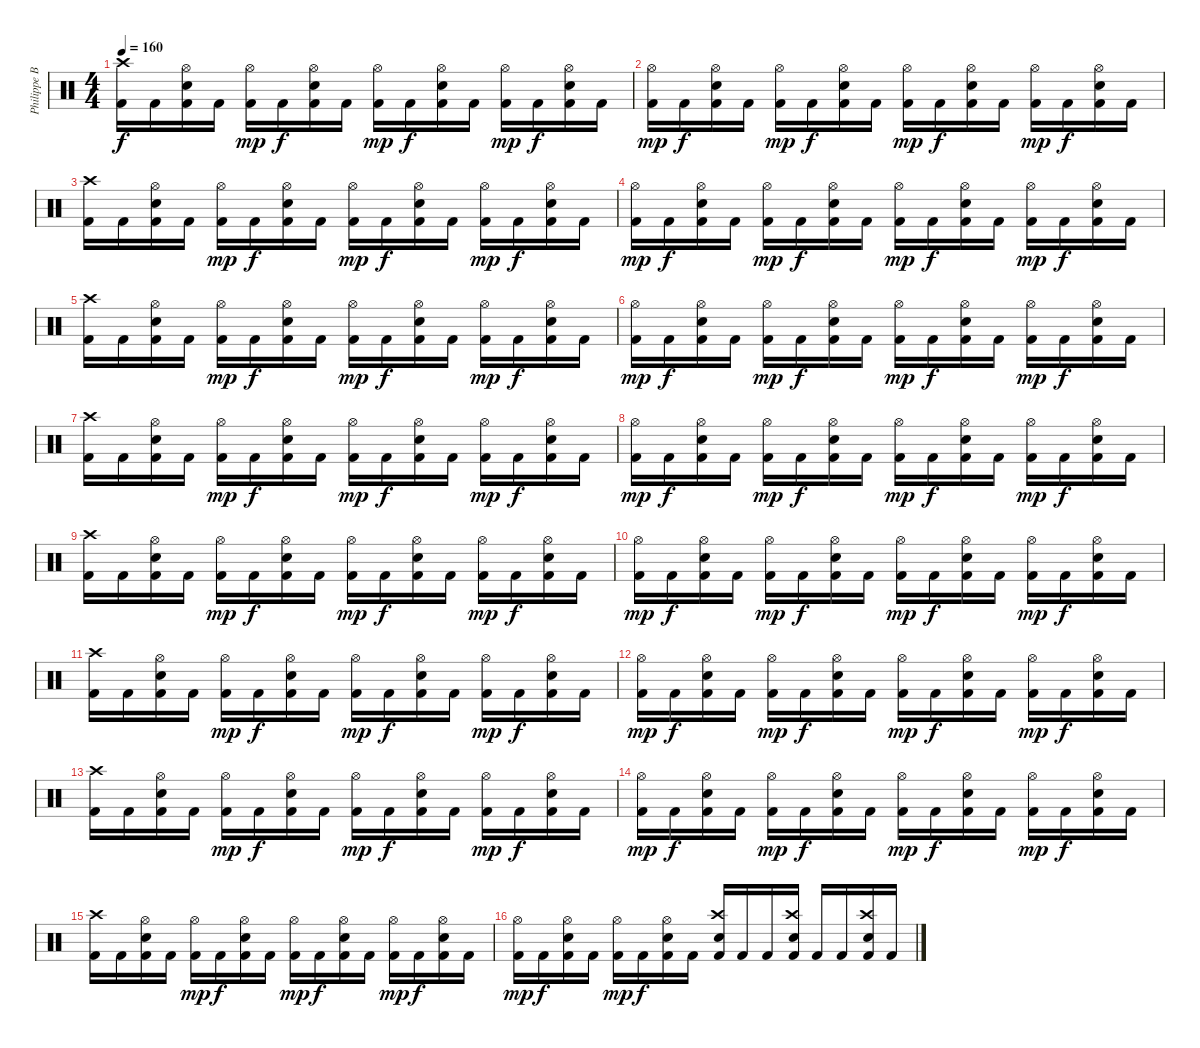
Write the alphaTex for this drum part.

\track ("Philippe Borda" "Philippe B") {instrument percussion}
\staff {score}
\articulation defaults
\ts (4 4)
\tempo 160
\clef neutral
\ks c
("Kick (hit) 2" "Crash high (hit)").16{dy f} "Kick (hit) 2".16 ("Kick (hit) 2" "Snare (hit) 2" "Hi-Hat (open)").16 "Kick (hit) 2".16 ("Kick (hit) 2" "Hi-Hat (open)").16{dy mp} "Kick (hit) 2".16{dy f} ("Kick (hit) 2" "Snare (hit) 2" "Hi-Hat (open)").16 "Kick (hit) 2".16 ("Kick (hit) 2" "Hi-Hat (open)").16{dy mp} "Kick (hit) 2".16{dy f} ("Kick (hit) 2" "Snare (hit) 2" "Hi-Hat (open)").16 "Kick (hit) 2".16 ("Kick (hit) 2" "Hi-Hat (open)").16{dy mp} "Kick (hit) 2".16{dy f} ("Kick (hit) 2" "Snare (hit) 2" "Hi-Hat (open)").16 "Kick (hit) 2".16 |
("Kick (hit) 2" "Hi-Hat (open)").16{dy mp} "Kick (hit) 2".16{dy f} ("Kick (hit) 2" "Snare (hit) 2" "Hi-Hat (open)").16 "Kick (hit) 2".16 ("Kick (hit) 2" "Hi-Hat (open)").16{dy mp} "Kick (hit) 2".16{dy f} ("Kick (hit) 2" "Snare (hit) 2" "Hi-Hat (open)").16 "Kick (hit) 2".16 ("Kick (hit) 2" "Hi-Hat (open)").16{dy mp} "Kick (hit) 2".16{dy f} ("Kick (hit) 2" "Snare (hit) 2" "Hi-Hat (open)").16 "Kick (hit) 2".16 ("Kick (hit) 2" "Hi-Hat (open)").16{dy mp} "Kick (hit) 2".16{dy f} ("Kick (hit) 2" "Snare (hit) 2" "Hi-Hat (open)").16 "Kick (hit) 2".16 |
("Kick (hit) 2" "Crash high (hit)").16 "Kick (hit) 2".16 ("Kick (hit) 2" "Snare (hit) 2" "Hi-Hat (open)").16 "Kick (hit) 2".16 ("Kick (hit) 2" "Hi-Hat (open)").16{dy mp} "Kick (hit) 2".16{dy f} ("Kick (hit) 2" "Snare (hit) 2" "Hi-Hat (open)").16 "Kick (hit) 2".16 ("Kick (hit) 2" "Hi-Hat (open)").16{dy mp} "Kick (hit) 2".16{dy f} ("Kick (hit) 2" "Snare (hit) 2" "Hi-Hat (open)").16 "Kick (hit) 2".16 ("Kick (hit) 2" "Hi-Hat (open)").16{dy mp} "Kick (hit) 2".16{dy f} ("Kick (hit) 2" "Snare (hit) 2" "Hi-Hat (open)").16 "Kick (hit) 2".16 |
("Kick (hit) 2" "Hi-Hat (open)").16{dy mp} "Kick (hit) 2".16{dy f} ("Kick (hit) 2" "Snare (hit) 2" "Hi-Hat (open)").16 "Kick (hit) 2".16 ("Kick (hit) 2" "Hi-Hat (open)").16{dy mp} "Kick (hit) 2".16{dy f} ("Kick (hit) 2" "Snare (hit) 2" "Hi-Hat (open)").16 "Kick (hit) 2".16 ("Kick (hit) 2" "Hi-Hat (open)").16{dy mp} "Kick (hit) 2".16{dy f} ("Kick (hit) 2" "Snare (hit) 2" "Hi-Hat (open)").16 "Kick (hit) 2".16 ("Kick (hit) 2" "Hi-Hat (open)").16{dy mp} "Kick (hit) 2".16{dy f} ("Kick (hit) 2" "Snare (hit) 2" "Hi-Hat (open)").16 "Kick (hit) 2".16 |
("Kick (hit) 2" "Crash high (hit)").16 "Kick (hit) 2".16 ("Kick (hit) 2" "Snare (hit) 2" "Hi-Hat (open)").16 "Kick (hit) 2".16 ("Kick (hit) 2" "Hi-Hat (open)").16{dy mp} "Kick (hit) 2".16{dy f} ("Kick (hit) 2" "Snare (hit) 2" "Hi-Hat (open)").16 "Kick (hit) 2".16 ("Kick (hit) 2" "Hi-Hat (open)").16{dy mp} "Kick (hit) 2".16{dy f} ("Kick (hit) 2" "Snare (hit) 2" "Hi-Hat (open)").16 "Kick (hit) 2".16 ("Kick (hit) 2" "Hi-Hat (open)").16{dy mp} "Kick (hit) 2".16{dy f} ("Kick (hit) 2" "Snare (hit) 2" "Hi-Hat (open)").16 "Kick (hit) 2".16 |
("Kick (hit) 2" "Hi-Hat (open)").16{dy mp} "Kick (hit) 2".16{dy f} ("Kick (hit) 2" "Snare (hit) 2" "Hi-Hat (open)").16 "Kick (hit) 2".16 ("Kick (hit) 2" "Hi-Hat (open)").16{dy mp} "Kick (hit) 2".16{dy f} ("Kick (hit) 2" "Snare (hit) 2" "Hi-Hat (open)").16 "Kick (hit) 2".16 ("Kick (hit) 2" "Hi-Hat (open)").16{dy mp} "Kick (hit) 2".16{dy f} ("Kick (hit) 2" "Snare (hit) 2" "Hi-Hat (open)").16 "Kick (hit) 2".16 ("Kick (hit) 2" "Hi-Hat (open)").16{dy mp} "Kick (hit) 2".16{dy f} ("Kick (hit) 2" "Snare (hit) 2" "Hi-Hat (open)").16 "Kick (hit) 2".16 |
("Kick (hit) 2" "Crash high (hit)").16 "Kick (hit) 2".16 ("Kick (hit) 2" "Snare (hit) 2" "Hi-Hat (open)").16 "Kick (hit) 2".16 ("Kick (hit) 2" "Hi-Hat (open)").16{dy mp} "Kick (hit) 2".16{dy f} ("Kick (hit) 2" "Snare (hit) 2" "Hi-Hat (open)").16 "Kick (hit) 2".16 ("Kick (hit) 2" "Hi-Hat (open)").16{dy mp} "Kick (hit) 2".16{dy f} ("Kick (hit) 2" "Snare (hit) 2" "Hi-Hat (open)").16 "Kick (hit) 2".16 ("Kick (hit) 2" "Hi-Hat (open)").16{dy mp} "Kick (hit) 2".16{dy f} ("Kick (hit) 2" "Snare (hit) 2" "Hi-Hat (open)").16 "Kick (hit) 2".16 |
("Kick (hit) 2" "Hi-Hat (open)").16{dy mp} "Kick (hit) 2".16{dy f} ("Kick (hit) 2" "Snare (hit) 2" "Hi-Hat (open)").16 "Kick (hit) 2".16 ("Kick (hit) 2" "Hi-Hat (open)").16{dy mp} "Kick (hit) 2".16{dy f} ("Kick (hit) 2" "Snare (hit) 2" "Hi-Hat (open)").16 "Kick (hit) 2".16 ("Kick (hit) 2" "Hi-Hat (open)").16{dy mp} "Kick (hit) 2".16{dy f} ("Kick (hit) 2" "Snare (hit) 2" "Hi-Hat (open)").16 "Kick (hit) 2".16 ("Kick (hit) 2" "Hi-Hat (open)").16{dy mp} "Kick (hit) 2".16{dy f} ("Kick (hit) 2" "Snare (hit) 2" "Hi-Hat (open)").16 "Kick (hit) 2".16 |
("Kick (hit) 2" "Crash high (hit)").16 "Kick (hit) 2".16 ("Kick (hit) 2" "Snare (hit) 2" "Hi-Hat (open)").16 "Kick (hit) 2".16 ("Kick (hit) 2" "Hi-Hat (open)").16{dy mp} "Kick (hit) 2".16{dy f} ("Kick (hit) 2" "Snare (hit) 2" "Hi-Hat (open)").16 "Kick (hit) 2".16 ("Kick (hit) 2" "Hi-Hat (open)").16{dy mp} "Kick (hit) 2".16{dy f} ("Kick (hit) 2" "Snare (hit) 2" "Hi-Hat (open)").16 "Kick (hit) 2".16 ("Kick (hit) 2" "Hi-Hat (open)").16{dy mp} "Kick (hit) 2".16{dy f} ("Kick (hit) 2" "Snare (hit) 2" "Hi-Hat (open)").16 "Kick (hit) 2".16 |
("Kick (hit) 2" "Hi-Hat (open)").16{dy mp} "Kick (hit) 2".16{dy f} ("Kick (hit) 2" "Snare (hit) 2" "Hi-Hat (open)").16 "Kick (hit) 2".16 ("Kick (hit) 2" "Hi-Hat (open)").16{dy mp} "Kick (hit) 2".16{dy f} ("Kick (hit) 2" "Snare (hit) 2" "Hi-Hat (open)").16 "Kick (hit) 2".16 ("Kick (hit) 2" "Hi-Hat (open)").16{dy mp} "Kick (hit) 2".16{dy f} ("Kick (hit) 2" "Snare (hit) 2" "Hi-Hat (open)").16 "Kick (hit) 2".16 ("Kick (hit) 2" "Hi-Hat (open)").16{dy mp} "Kick (hit) 2".16{dy f} ("Kick (hit) 2" "Snare (hit) 2" "Hi-Hat (open)").16 "Kick (hit) 2".16 |
("Kick (hit) 2" "Crash high (hit)").16 "Kick (hit) 2".16 ("Kick (hit) 2" "Snare (hit) 2" "Hi-Hat (open)").16 "Kick (hit) 2".16 ("Kick (hit) 2" "Hi-Hat (open)").16{dy mp} "Kick (hit) 2".16{dy f} ("Kick (hit) 2" "Snare (hit) 2" "Hi-Hat (open)").16 "Kick (hit) 2".16 ("Kick (hit) 2" "Hi-Hat (open)").16{dy mp} "Kick (hit) 2".16{dy f} ("Kick (hit) 2" "Snare (hit) 2" "Hi-Hat (open)").16 "Kick (hit) 2".16 ("Kick (hit) 2" "Hi-Hat (open)").16{dy mp} "Kick (hit) 2".16{dy f} ("Kick (hit) 2" "Snare (hit) 2" "Hi-Hat (open)").16 "Kick (hit) 2".16 |
("Kick (hit) 2" "Hi-Hat (open)").16{dy mp} "Kick (hit) 2".16{dy f} ("Kick (hit) 2" "Snare (hit) 2" "Hi-Hat (open)").16 "Kick (hit) 2".16 ("Kick (hit) 2" "Hi-Hat (open)").16{dy mp} "Kick (hit) 2".16{dy f} ("Kick (hit) 2" "Snare (hit) 2" "Hi-Hat (open)").16 "Kick (hit) 2".16 ("Kick (hit) 2" "Hi-Hat (open)").16{dy mp} "Kick (hit) 2".16{dy f} ("Kick (hit) 2" "Snare (hit) 2" "Hi-Hat (open)").16 "Kick (hit) 2".16 ("Kick (hit) 2" "Hi-Hat (open)").16{dy mp} "Kick (hit) 2".16{dy f} ("Kick (hit) 2" "Snare (hit) 2" "Hi-Hat (open)").16 "Kick (hit) 2".16 |
("Kick (hit) 2" "Crash high (hit)").16 "Kick (hit) 2".16 ("Kick (hit) 2" "Snare (hit) 2" "Hi-Hat (open)").16 "Kick (hit) 2".16 ("Kick (hit) 2" "Hi-Hat (open)").16{dy mp} "Kick (hit) 2".16{dy f} ("Kick (hit) 2" "Snare (hit) 2" "Hi-Hat (open)").16 "Kick (hit) 2".16 ("Kick (hit) 2" "Hi-Hat (open)").16{dy mp} "Kick (hit) 2".16{dy f} ("Kick (hit) 2" "Snare (hit) 2" "Hi-Hat (open)").16 "Kick (hit) 2".16 ("Kick (hit) 2" "Hi-Hat (open)").16{dy mp} "Kick (hit) 2".16{dy f} ("Kick (hit) 2" "Snare (hit) 2" "Hi-Hat (open)").16 "Kick (hit) 2".16 |
("Kick (hit) 2" "Hi-Hat (open)").16{dy mp} "Kick (hit) 2".16{dy f} ("Kick (hit) 2" "Snare (hit) 2" "Hi-Hat (open)").16 "Kick (hit) 2".16 ("Kick (hit) 2" "Hi-Hat (open)").16{dy mp} "Kick (hit) 2".16{dy f} ("Kick (hit) 2" "Snare (hit) 2" "Hi-Hat (open)").16 "Kick (hit) 2".16 ("Kick (hit) 2" "Hi-Hat (open)").16{dy mp} "Kick (hit) 2".16{dy f} ("Kick (hit) 2" "Snare (hit) 2" "Hi-Hat (open)").16 "Kick (hit) 2".16 ("Kick (hit) 2" "Hi-Hat (open)").16{dy mp} "Kick (hit) 2".16{dy f} ("Kick (hit) 2" "Snare (hit) 2" "Hi-Hat (open)").16 "Kick (hit) 2".16 |
("Kick (hit) 2" "Crash high (hit)").16 "Kick (hit) 2".16 ("Kick (hit) 2" "Snare (hit) 2" "Hi-Hat (open)").16 "Kick (hit) 2".16 ("Kick (hit) 2" "Hi-Hat (open)").16{dy mp} "Kick (hit) 2".16{dy f} ("Kick (hit) 2" "Snare (hit) 2" "Hi-Hat (open)").16 "Kick (hit) 2".16 ("Kick (hit) 2" "Hi-Hat (open)").16{dy mp} "Kick (hit) 2".16{dy f} ("Kick (hit) 2" "Snare (hit) 2" "Hi-Hat (open)").16 "Kick (hit) 2".16 ("Kick (hit) 2" "Hi-Hat (open)").16{dy mp} "Kick (hit) 2".16{dy f} ("Kick (hit) 2" "Snare (hit) 2" "Hi-Hat (open)").16 "Kick (hit) 2".16 |
("Kick (hit) 2" "Hi-Hat (open)").16{dy mp} "Kick (hit) 2".16{dy f} ("Kick (hit) 2" "Snare (hit) 2" "Hi-Hat (open)").16 "Kick (hit) 2".16 ("Kick (hit) 2" "Hi-Hat (open)").16{dy mp} "Kick (hit) 2".16{dy f} ("Kick (hit) 2" "Snare (hit) 2" "Hi-Hat (open)").16 "Kick (hit) 2".16 ("Kick (hit) 2" "Snare (hit) 2" "Crash high (hit)").16 "Kick (hit) 2".16 "Kick (hit) 2".16 ("Kick (hit) 2" "Snare (hit) 2" "Crash high (hit)").16 "Kick (hit) 2".16 "Kick (hit) 2".16 ("Kick (hit) 2" "Snare (hit) 2" "Crash high (hit)").16 "Kick (hit) 2".16
